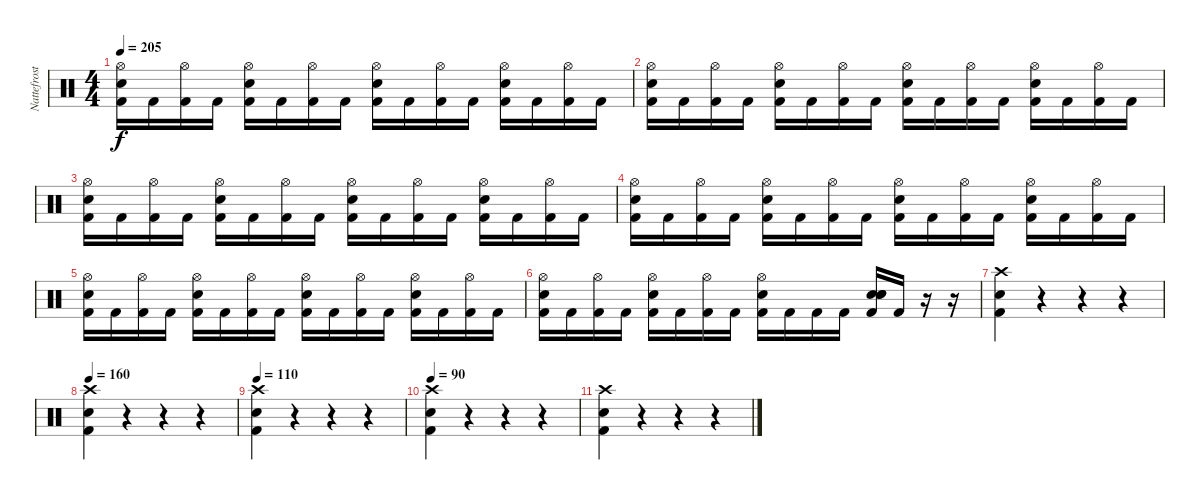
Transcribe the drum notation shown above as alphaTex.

\track ("Nattefrost" "Nattefrost") {instrument percussion}
\staff {score}
\articulation defaults
\ts (4 4)
\tempo 205
\clef neutral
\ks c
("Hi-Hat (open)" "Snare (hit) 2" "Kick (hit) 2").16{dy f} "Kick (hit) 2".16 ("Hi-Hat (open)" "Kick (hit) 2").16 "Kick (hit) 2".16 ("Hi-Hat (open)" "Snare (hit) 2" "Kick (hit) 2").16 "Kick (hit) 2".16 ("Hi-Hat (open)" "Kick (hit) 2").16 "Kick (hit) 2".16 ("Hi-Hat (open)" "Snare (hit) 2" "Kick (hit) 2").16 "Kick (hit) 2".16 ("Hi-Hat (open)" "Kick (hit) 2").16 "Kick (hit) 2".16 ("Hi-Hat (open)" "Snare (hit) 2" "Kick (hit) 2").16 "Kick (hit) 2".16 ("Hi-Hat (open)" "Kick (hit) 2").16 "Kick (hit) 2".16 |
("Hi-Hat (open)" "Snare (hit) 2" "Kick (hit) 2").16 "Kick (hit) 2".16 ("Hi-Hat (open)" "Kick (hit) 2").16 "Kick (hit) 2".16 ("Hi-Hat (open)" "Snare (hit) 2" "Kick (hit) 2").16 "Kick (hit) 2".16 ("Hi-Hat (open)" "Kick (hit) 2").16 "Kick (hit) 2".16 ("Hi-Hat (open)" "Snare (hit) 2" "Kick (hit) 2").16 "Kick (hit) 2".16 ("Hi-Hat (open)" "Kick (hit) 2").16 "Kick (hit) 2".16 ("Hi-Hat (open)" "Snare (hit) 2" "Kick (hit) 2").16 "Kick (hit) 2".16 ("Hi-Hat (open)" "Kick (hit) 2").16 "Kick (hit) 2".16 |
("Hi-Hat (open)" "Snare (hit) 2" "Kick (hit) 2").16 "Kick (hit) 2".16 ("Hi-Hat (open)" "Kick (hit) 2").16 "Kick (hit) 2".16 ("Hi-Hat (open)" "Snare (hit) 2" "Kick (hit) 2").16 "Kick (hit) 2".16 ("Hi-Hat (open)" "Kick (hit) 2").16 "Kick (hit) 2".16 ("Hi-Hat (open)" "Snare (hit) 2" "Kick (hit) 2").16 "Kick (hit) 2".16 ("Hi-Hat (open)" "Kick (hit) 2").16 "Kick (hit) 2".16 ("Hi-Hat (open)" "Snare (hit) 2" "Kick (hit) 2").16 "Kick (hit) 2".16 ("Hi-Hat (open)" "Kick (hit) 2").16 "Kick (hit) 2".16 |
("Hi-Hat (open)" "Snare (hit) 2" "Kick (hit) 2").16 "Kick (hit) 2".16 ("Hi-Hat (open)" "Kick (hit) 2").16 "Kick (hit) 2".16 ("Hi-Hat (open)" "Snare (hit) 2" "Kick (hit) 2").16 "Kick (hit) 2".16 ("Hi-Hat (open)" "Kick (hit) 2").16 "Kick (hit) 2".16 ("Hi-Hat (open)" "Snare (hit) 2" "Kick (hit) 2").16 "Kick (hit) 2".16 ("Hi-Hat (open)" "Kick (hit) 2").16 "Kick (hit) 2".16 ("Hi-Hat (open)" "Snare (hit) 2" "Kick (hit) 2").16 "Kick (hit) 2".16 ("Hi-Hat (open)" "Kick (hit) 2").16 "Kick (hit) 2".16 |
("Hi-Hat (open)" "Snare (hit) 2" "Kick (hit) 2").16 "Kick (hit) 2".16 ("Hi-Hat (open)" "Kick (hit) 2").16 "Kick (hit) 2".16 ("Hi-Hat (open)" "Snare (hit) 2" "Kick (hit) 2").16 "Kick (hit) 2".16 ("Hi-Hat (open)" "Kick (hit) 2").16 "Kick (hit) 2".16 ("Hi-Hat (open)" "Snare (hit) 2" "Kick (hit) 2").16 "Kick (hit) 2".16 ("Hi-Hat (open)" "Kick (hit) 2").16 "Kick (hit) 2".16 ("Hi-Hat (open)" "Snare (hit) 2" "Kick (hit) 2").16 "Kick (hit) 2".16 ("Hi-Hat (open)" "Kick (hit) 2").16 "Kick (hit) 2".16 |
("Hi-Hat (open)" "Snare (hit) 2" "Kick (hit) 2").16 "Kick (hit) 2".16 ("Hi-Hat (open)" "Kick (hit) 2").16 "Kick (hit) 2".16 ("Hi-Hat (open)" "Snare (hit) 2" "Kick (hit) 2").16 "Kick (hit) 2".16 ("Hi-Hat (open)" "Kick (hit) 2").16 "Kick (hit) 2".16 ("Hi-Hat (open)" "Snare (hit) 2" "Kick (hit) 2").16 "Kick (hit) 2".16 "Kick (hit) 2".16 "Kick (hit) 2".16 ("Snare (hit) 2" "Snare (hit) 2" "Snare (hit) 2" "Kick (hit) 2").16 "Kick (hit) 2".16 r.16 r.16 |
("Crash high (hit)" "Snare (hit) 2" "Kick (hit) 2").4 r.4 r.4 r.4 |
\tempo 160
("Crash high (hit)" "Snare (hit) 2" "Kick (hit) 2").4 r.4 r.4 r.4 |
\tempo 110
("Crash high (hit)" "Snare (hit) 2" "Kick (hit) 2").4 r.4 r.4 r.4 |
\tempo 90
("Crash high (hit)" "Snare (hit) 2" "Kick (hit) 2").4 r.4 r.4 r.4 |
("Crash high (hit)" "Snare (hit) 2" "Kick (hit) 2").4 r.4 r.4 r.4
